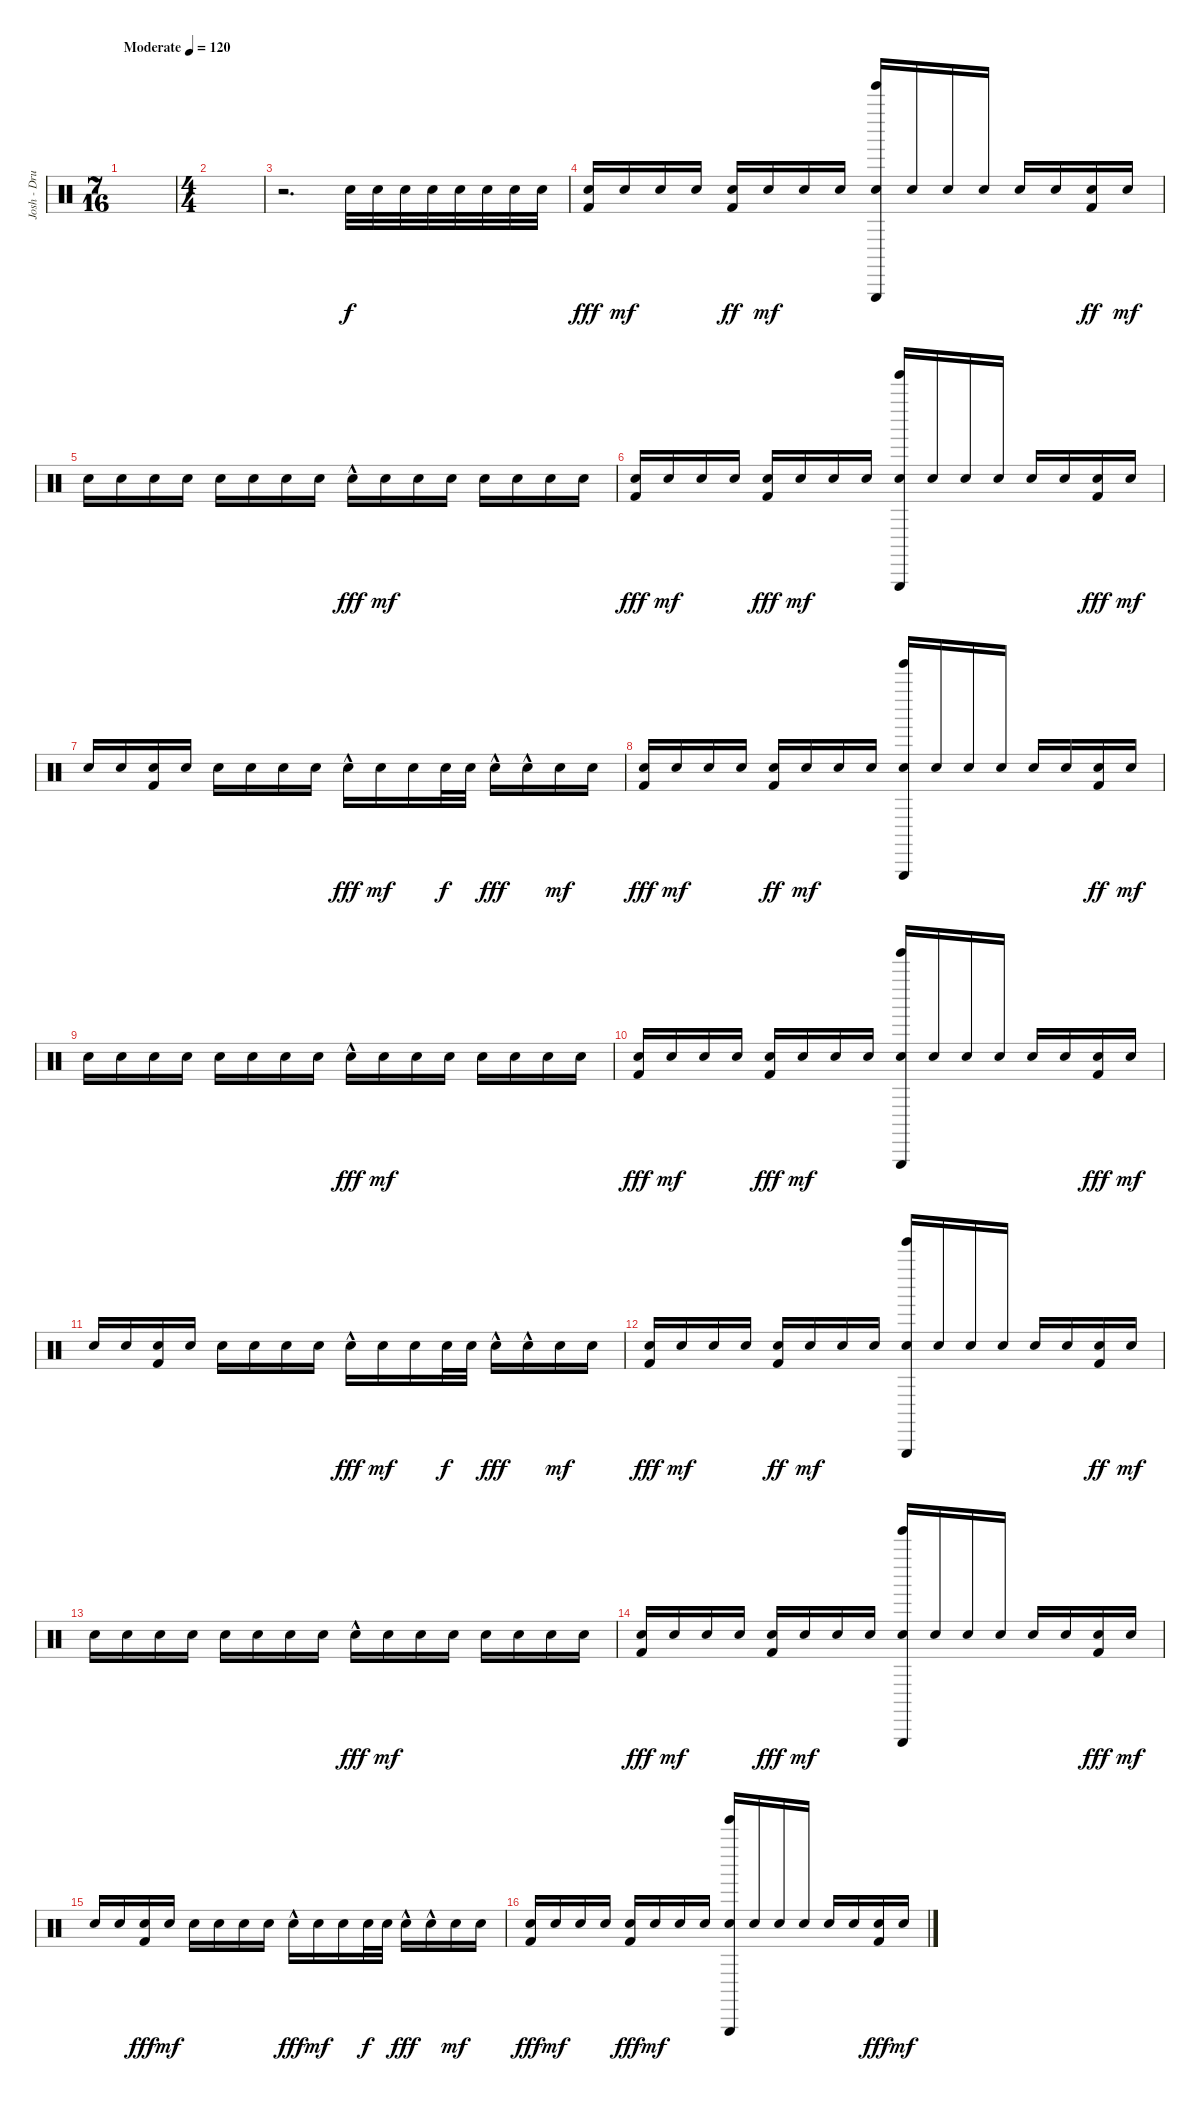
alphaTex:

\track ("Josh - Drums" "Josh - Dru") {instrument percussion}
\staff {score}
\articulation defaults
\ts (7 16)
\tempo (120 "Moderate")
\clef neutral
\ks c
|
\ts (4 4)
|
r.2{d} "Electric Snare (hit)".32 "Electric Snare (hit)".32 "Electric Snare (hit)".32 "Electric Snare (hit)".32 "Electric Snare (hit)".32 "Electric Snare (hit)".32 "Electric Snare (hit)".32 "Electric Snare (hit)".32 |
("Electric Snare (hit)" "Kick (hit) 2").16{dy fff} "Electric Snare (hit)".16{dy mf} "Electric Snare (hit)".16 "Electric Snare (hit)".16 ("Electric Snare (hit)" "Kick (hit) 2").16{dy ff} "Electric Snare (hit)".16{dy mf} "Electric Snare (hit)".16 "Electric Snare (hit)".16 ("Electric Snare (hit)" "Tinkle Bell (hit)" "Triangle (hit)").16 "Electric Snare (hit)".16 "Electric Snare (hit)".16 "Electric Snare (hit)".16 "Electric Snare (hit)".16 "Electric Snare (hit)".16 ("Electric Snare (hit)" "Kick (hit) 2").16{dy ff} "Electric Snare (hit)".16{dy mf} |
"Electric Snare (hit)".16 "Electric Snare (hit)".16 "Electric Snare (hit)".16 "Electric Snare (hit)".16 "Electric Snare (hit)".16 "Electric Snare (hit)".16 "Electric Snare (hit)".16 "Electric Snare (hit)".16 "Snare (hit) 2"{hac}.16{dy fff} "Electric Snare (hit)".16{dy mf} "Electric Snare (hit)".16 "Electric Snare (hit)".16 "Electric Snare (hit)".16 "Electric Snare (hit)".16 "Electric Snare (hit)".16 "Electric Snare (hit)".16 |
("Electric Snare (hit)" "Kick (hit) 2").16{dy fff} "Electric Snare (hit)".16{dy mf} "Electric Snare (hit)".16 "Electric Snare (hit)".16 ("Electric Snare (hit)" "Kick (hit) 2").16{dy fff} "Electric Snare (hit)".16{dy mf} "Electric Snare (hit)".16 "Electric Snare (hit)".16 ("Electric Snare (hit)" "Tinkle Bell (hit)" "Triangle (hit)").16 "Electric Snare (hit)".16 "Electric Snare (hit)".16 "Electric Snare (hit)".16 "Electric Snare (hit)".16 "Electric Snare (hit)".16 ("Electric Snare (hit)" "Kick (hit) 2").16{dy fff} "Electric Snare (hit)".16{dy mf} |
"Electric Snare (hit)".16 "Electric Snare (hit)".16 ("Electric Snare (hit)" "Kick (hit) 2").16 "Electric Snare (hit)".16 "Electric Snare (hit)".16 "Electric Snare (hit)".16 "Electric Snare (hit)".16 "Electric Snare (hit)".16 "Snare (hit) 2"{hac}.16{dy fff} "Electric Snare (hit)".16{dy mf} "Electric Snare (hit)".16 "Snare (hit) 2".32{dy f} "Snare (hit) 2".32 "Snare (hit) 2"{hac}.16{dy fff} "Snare (hit) 2"{hac}.16 "Electric Snare (hit)".16{dy mf} "Electric Snare (hit)".16 |
("Electric Snare (hit)" "Kick (hit) 2").16{dy fff} "Electric Snare (hit)".16{dy mf} "Electric Snare (hit)".16 "Electric Snare (hit)".16 ("Electric Snare (hit)" "Kick (hit) 2").16{dy ff} "Electric Snare (hit)".16{dy mf} "Electric Snare (hit)".16 "Electric Snare (hit)".16 ("Electric Snare (hit)" "Tinkle Bell (hit)" "Triangle (hit)").16 "Electric Snare (hit)".16 "Electric Snare (hit)".16 "Electric Snare (hit)".16 "Electric Snare (hit)".16 "Electric Snare (hit)".16 ("Electric Snare (hit)" "Kick (hit) 2").16{dy ff} "Electric Snare (hit)".16{dy mf} |
"Electric Snare (hit)".16 "Electric Snare (hit)".16 "Electric Snare (hit)".16 "Electric Snare (hit)".16 "Electric Snare (hit)".16 "Electric Snare (hit)".16 "Electric Snare (hit)".16 "Electric Snare (hit)".16 "Snare (hit) 2"{hac}.16{dy fff} "Electric Snare (hit)".16{dy mf} "Electric Snare (hit)".16 "Electric Snare (hit)".16 "Electric Snare (hit)".16 "Electric Snare (hit)".16 "Electric Snare (hit)".16 "Electric Snare (hit)".16 |
("Electric Snare (hit)" "Kick (hit) 2").16{dy fff} "Electric Snare (hit)".16{dy mf} "Electric Snare (hit)".16 "Electric Snare (hit)".16 ("Electric Snare (hit)" "Kick (hit) 2").16{dy fff} "Electric Snare (hit)".16{dy mf} "Electric Snare (hit)".16 "Electric Snare (hit)".16 ("Electric Snare (hit)" "Tinkle Bell (hit)" "Triangle (hit)").16 "Electric Snare (hit)".16 "Electric Snare (hit)".16 "Electric Snare (hit)".16 "Electric Snare (hit)".16 "Electric Snare (hit)".16 ("Electric Snare (hit)" "Kick (hit) 2").16{dy fff} "Electric Snare (hit)".16{dy mf} |
"Electric Snare (hit)".16 "Electric Snare (hit)".16 ("Electric Snare (hit)" "Kick (hit) 2").16 "Electric Snare (hit)".16 "Electric Snare (hit)".16 "Electric Snare (hit)".16 "Electric Snare (hit)".16 "Electric Snare (hit)".16 "Snare (hit) 2"{hac}.16{dy fff} "Electric Snare (hit)".16{dy mf} "Electric Snare (hit)".16 "Snare (hit) 2".32{dy f} "Snare (hit) 2".32 "Snare (hit) 2"{hac}.16{dy fff} "Snare (hit) 2"{hac}.16 "Electric Snare (hit)".16{dy mf} "Electric Snare (hit)".16 |
("Electric Snare (hit)" "Kick (hit) 2").16{dy fff} "Electric Snare (hit)".16{dy mf} "Electric Snare (hit)".16 "Electric Snare (hit)".16 ("Electric Snare (hit)" "Kick (hit) 2").16{dy ff} "Electric Snare (hit)".16{dy mf} "Electric Snare (hit)".16 "Electric Snare (hit)".16 ("Electric Snare (hit)" "Tinkle Bell (hit)" "Triangle (hit)").16 "Electric Snare (hit)".16 "Electric Snare (hit)".16 "Electric Snare (hit)".16 "Electric Snare (hit)".16 "Electric Snare (hit)".16 ("Electric Snare (hit)" "Kick (hit) 2").16{dy ff} "Electric Snare (hit)".16{dy mf} |
"Electric Snare (hit)".16 "Electric Snare (hit)".16 "Electric Snare (hit)".16 "Electric Snare (hit)".16 "Electric Snare (hit)".16 "Electric Snare (hit)".16 "Electric Snare (hit)".16 "Electric Snare (hit)".16 "Snare (hit) 2"{hac}.16{dy fff} "Electric Snare (hit)".16{dy mf} "Electric Snare (hit)".16 "Electric Snare (hit)".16 "Electric Snare (hit)".16 "Electric Snare (hit)".16 "Electric Snare (hit)".16 "Electric Snare (hit)".16 |
("Electric Snare (hit)" "Kick (hit) 2").16{dy fff} "Electric Snare (hit)".16{dy mf} "Electric Snare (hit)".16 "Electric Snare (hit)".16 ("Electric Snare (hit)" "Kick (hit) 2").16{dy fff} "Electric Snare (hit)".16{dy mf} "Electric Snare (hit)".16 "Electric Snare (hit)".16 ("Electric Snare (hit)" "Tinkle Bell (hit)" "Triangle (hit)").16 "Electric Snare (hit)".16 "Electric Snare (hit)".16 "Electric Snare (hit)".16 "Electric Snare (hit)".16 "Electric Snare (hit)".16 ("Electric Snare (hit)" "Kick (hit) 2").16{dy fff} "Electric Snare (hit)".16{dy mf} |
"Electric Snare (hit)".16 "Electric Snare (hit)".16 ("Electric Snare (hit)" "Kick (hit) 2").16{dy fff} "Electric Snare (hit)".16{dy mf} "Electric Snare (hit)".16 "Electric Snare (hit)".16 "Electric Snare (hit)".16 "Electric Snare (hit)".16 "Snare (hit) 2"{hac}.16{dy fff} "Electric Snare (hit)".16{dy mf} "Electric Snare (hit)".16 "Snare (hit) 2".32{dy f} "Snare (hit) 2".32 "Snare (hit) 2"{hac}.16{dy fff} "Snare (hit) 2"{hac}.16 "Electric Snare (hit)".16{dy mf} "Electric Snare (hit)".16 |
("Electric Snare (hit)" "Kick (hit) 2").16{dy fff} "Electric Snare (hit)".16{dy mf} "Electric Snare (hit)".16 "Electric Snare (hit)".16 ("Electric Snare (hit)" "Kick (hit) 2").16{dy fff} "Electric Snare (hit)".16{dy mf} "Electric Snare (hit)".16 "Electric Snare (hit)".16 ("Electric Snare (hit)" "Tinkle Bell (hit)" "Triangle (hit)").16 "Electric Snare (hit)".16 "Electric Snare (hit)".16 "Electric Snare (hit)".16 "Electric Snare (hit)".16 "Electric Snare (hit)".16 ("Electric Snare (hit)" "Kick (hit) 2").16{dy fff} "Electric Snare (hit)".16{dy mf}
